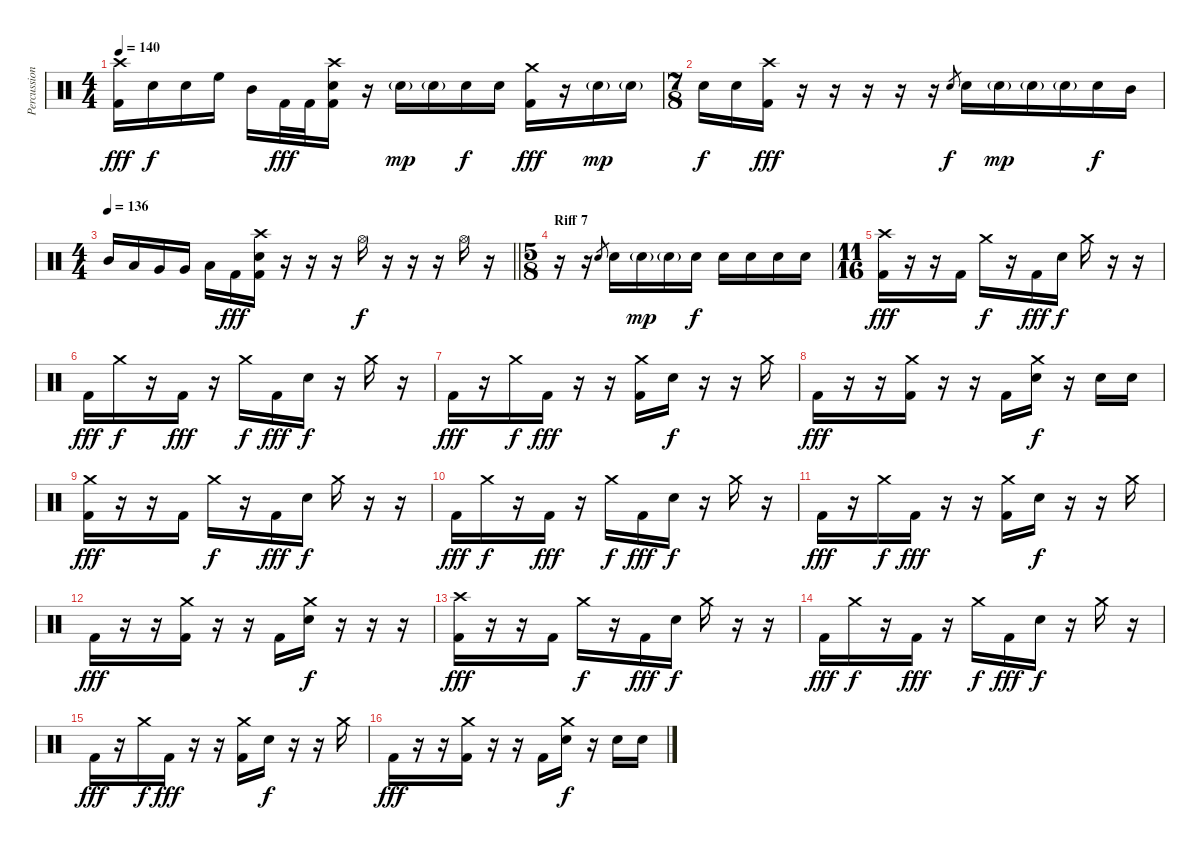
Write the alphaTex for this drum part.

\track ("Percussion" "Percussion") {instrument percussion}
\staff {score}
\articulation defaults
\ts (4 4)
\tempo 140
\clef neutral
\ks c
("Crash high (hit)" "Kick (hit) 2").16{dy fff} "Electric Snare (hit)".16{dy f} "Electric Snare (hit)".16 "High Floor Tom (hit)".16 "Mid Tom (hit)".16 "Kick (hit) 2".32{dy fff} "Kick (hit) 2".32 ("Crash high (hit)" "Electric Snare (hit)" "Kick (hit) 2").16 r.16 "Electric Snare (hit)"{g}.16{dy mp} "Electric Snare (hit)"{g}.16 "Electric Snare (hit)".16{dy f} "Electric Snare (hit)".16 ("Crash medium (hit)" "Kick (hit) 2").16{dy fff} r.16 "Electric Snare (hit)"{g}.16{dy mp} "Electric Snare (hit)"{g}.16 |
\ts (7 8)
"Electric Snare (hit)".16{dy f} "Electric Snare (hit)".16 ("Crash high (hit)" "Kick (hit) 2").16{dy fff} r.16 r.16 r.16 r.16 r.16 "Electric Snare (hit)".8{gr dy f} "Electric Snare (hit)".16 "Electric Snare (hit)"{g}.16{dy mp} "Electric Snare (hit)"{g}.16 "Electric Snare (hit)"{g}.16 "Electric Snare (hit)".16{dy f} "Mid Tom (hit)".16 |
\ts (4 4)
\tempo 136
\barLineRight lightlight "Mid Tom (hit)".16 "Low Tom (hit)".16 "Very Low Tom (hit)".16 "Very Low Tom (hit)".16 "Low Floor Tom (hit)".16 "Kick (hit) 2".16{dy fff}
("Crash high (hit)" "Electric Snare (hit)" "Kick (hit) 2").16 r.16 r.16 r.16 "Hi-Hat (open)".16{dy f} r.16 r.16 r.16 "Hi-Hat (open)".16 r.16 |
\ts (5 8)
\section ("" "Riff 7")
r.16 r.16 "Electric Snare (hit)".8{gr} "Electric Snare (hit)".16 "Electric Snare (hit)"{g}.16{dy mp} "Electric Snare (hit)"{g}.16 "Electric Snare (hit)".16{dy f} "Electric Snare (hit)".16 "Electric Snare (hit)".16 "Electric Snare (hit)".16 "Electric Snare (hit)".16 |
\ts (11 16)
("Crash high (hit)" "Kick (hit) 2").16{dy fff} r.16 r.16 "Kick (hit) 2".16 "Crash medium (hit)".16{dy f} r.16 "Kick (hit) 2".16{dy fff} "Electric Snare (hit)".16{dy f} "Crash medium (hit)".16 r.16 r.16 |
"Kick (hit) 2".16{dy fff} "Crash medium (hit)".16{dy f} r.16 "Kick (hit) 2".16{dy fff} r.16 "Crash medium (hit)".16{dy f} "Kick (hit) 2".16{dy fff} "Electric Snare (hit)".16{dy f} r.16 "Crash medium (hit)".16 r.16 |
"Kick (hit) 2".16{dy fff} r.16 "Crash medium (hit)".16{dy f} "Kick (hit) 2".16{dy fff} r.16 r.16 ("Crash medium (hit)" "Kick (hit) 2").16 "Electric Snare (hit)".16{dy f} r.16 r.16 "Crash medium (hit)".16 |
"Kick (hit) 2".16{dy fff} r.16 r.16 ("Crash medium (hit)" "Kick (hit) 2").16 r.16 r.16 "Kick (hit) 2".16 ("Crash medium (hit)" "Electric Snare (hit)").16{dy f} r.16 "Electric Snare (hit)".16 "Electric Snare (hit)".16 |
("Crash medium (hit)" "Kick (hit) 2").16{dy fff} r.16 r.16 "Kick (hit) 2".16 "Crash medium (hit)".16{dy f} r.16 "Kick (hit) 2".16{dy fff} "Electric Snare (hit)".16{dy f} "Crash medium (hit)".16 r.16 r.16 |
"Kick (hit) 2".16{dy fff} "Crash medium (hit)".16{dy f} r.16 "Kick (hit) 2".16{dy fff} r.16 "Crash medium (hit)".16{dy f} "Kick (hit) 2".16{dy fff} "Electric Snare (hit)".16{dy f} r.16 "Crash medium (hit)".16 r.16 |
"Kick (hit) 2".16{dy fff} r.16 "Crash medium (hit)".16{dy f} "Kick (hit) 2".16{dy fff} r.16 r.16 ("Crash medium (hit)" "Kick (hit) 2").16 "Electric Snare (hit)".16{dy f} r.16 r.16 "Crash medium (hit)".16 |
"Kick (hit) 2".16{dy fff} r.16 r.16 ("Crash medium (hit)" "Kick (hit) 2").16 r.16 r.16 "Kick (hit) 2".16 ("Crash medium (hit)" "Electric Snare (hit)").16{dy f} r.16 r.16 r.16 |
("Crash high (hit)" "Kick (hit) 2").16{dy fff} r.16 r.16 "Kick (hit) 2".16 "Crash medium (hit)".16{dy f} r.16 "Kick (hit) 2".16{dy fff} "Electric Snare (hit)".16{dy f} "Crash medium (hit)".16 r.16 r.16 |
"Kick (hit) 2".16{dy fff} "Crash medium (hit)".16{dy f} r.16 "Kick (hit) 2".16{dy fff} r.16 "Crash medium (hit)".16{dy f} "Kick (hit) 2".16{dy fff} "Electric Snare (hit)".16{dy f} r.16 "Crash medium (hit)".16 r.16 |
"Kick (hit) 2".16{dy fff} r.16 "Crash medium (hit)".16{dy f} "Kick (hit) 2".16{dy fff} r.16 r.16 ("Crash medium (hit)" "Kick (hit) 2").16 "Electric Snare (hit)".16{dy f} r.16 r.16 "Crash medium (hit)".16 |
"Kick (hit) 2".16{dy fff} r.16 r.16 ("Crash medium (hit)" "Kick (hit) 2").16 r.16 r.16 "Kick (hit) 2".16 ("Crash medium (hit)" "Electric Snare (hit)").16{dy f} r.16 "Electric Snare (hit)".16 "Electric Snare (hit)".16
